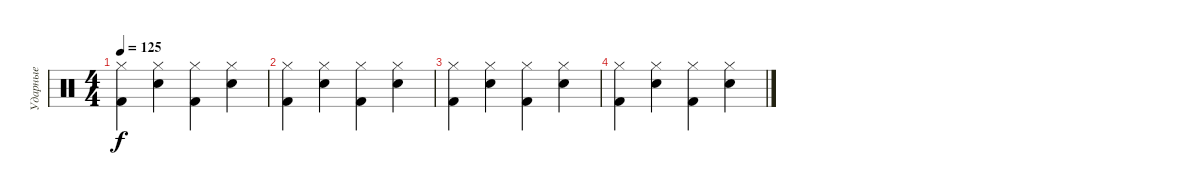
\track ("Ударные" "Ударные") {instrument percussion}
\staff {score}
\articulation defaults
\ts (4 4)
\tempo 125
\clef neutral
\ks c
("Hi-Hat (closed)" "Kick (hit) 2").4{dy f} ("Hi-Hat (closed)" "Snare (hit) 2").4 ("Hi-Hat (closed)" "Kick (hit) 2").4 ("Hi-Hat (closed)" "Snare (hit) 2").4 |
("Hi-Hat (closed)" "Kick (hit) 2").4 ("Hi-Hat (closed)" "Snare (hit) 2").4 ("Hi-Hat (closed)" "Kick (hit) 2").4 ("Hi-Hat (closed)" "Snare (hit) 2").4 |
("Hi-Hat (closed)" "Kick (hit) 2").4 ("Hi-Hat (closed)" "Snare (hit) 2").4 ("Hi-Hat (closed)" "Kick (hit) 2").4 ("Hi-Hat (closed)" "Snare (hit) 2").4 |
("Hi-Hat (closed)" "Kick (hit) 2").4 ("Hi-Hat (closed)" "Snare (hit) 2").4 ("Hi-Hat (closed)" "Kick (hit) 2").4 ("Hi-Hat (closed)" "Snare (hit) 2").4
